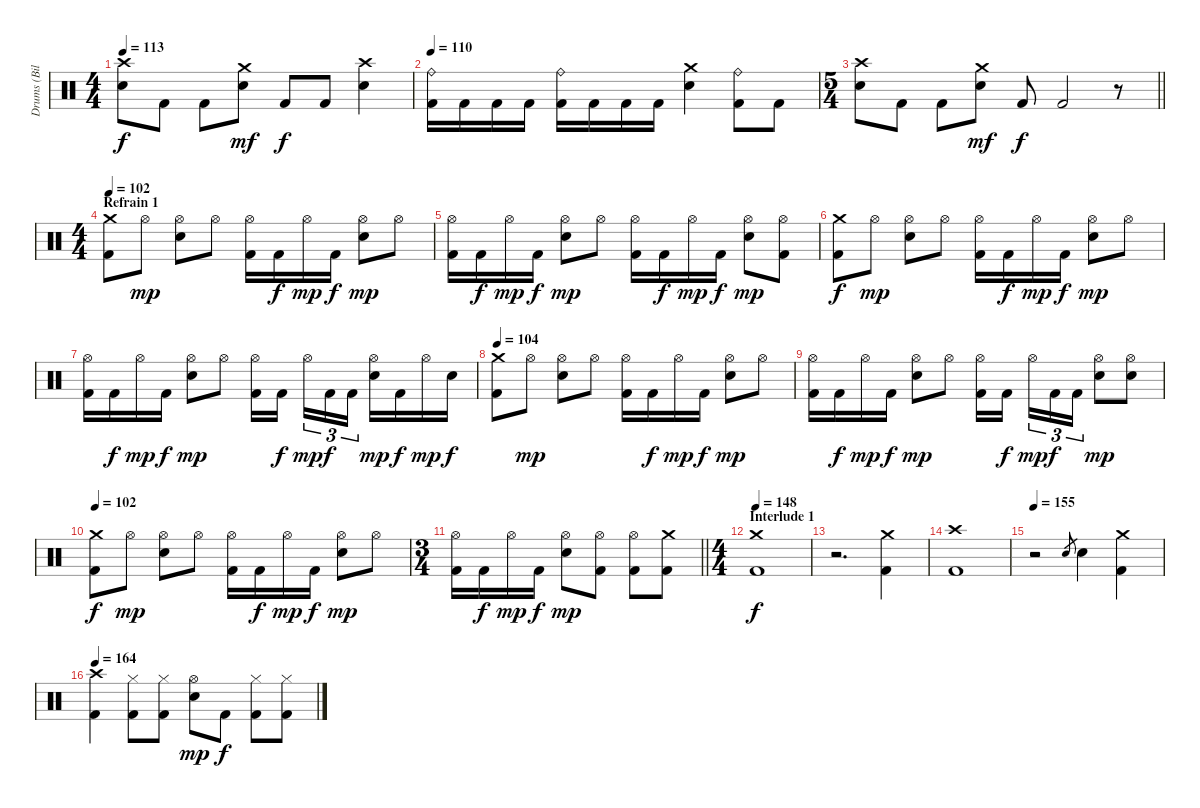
\track ("Drums (Bill Andrews)" "Drums (Bil") {instrument percussion}
\staff
\articulation defaults
\ts (4 4)
\tempo 113
\clef neutral
\ks c
("Crash high (hit)" "Electric Snare (hit)").8{dy f} "Kick (hit) 2".8 "Kick (hit) 2".8 ("Crash medium (hit)" "Electric Snare (hit)").8{dy mf} "Kick (hit) 2".8{dy f} "Kick (hit) 2".8 ("Crash high (hit)" "Electric Snare (hit)").4 |
\tempo 110
("Ride (bell)" "Kick (hit) 2").16 "Kick (hit) 2".16 "Kick (hit) 2".16 "Kick (hit) 2".16 ("Ride (bell)" "Kick (hit) 2").16 "Kick (hit) 2".16 "Kick (hit) 2".16 "Kick (hit) 2".16 ("Crash medium (hit)" "Electric Snare (hit)").4 ("Ride (bell)" "Kick (hit) 2").8 "Kick (hit) 2".8 |
\ts (5 4)
\barLineRight lightlight
("Crash high (hit)" "Electric Snare (hit)").8 "Kick (hit) 2".8 "Kick (hit) 2".8 ("Crash medium (hit)" "Electric Snare (hit)").8{dy mf} "Kick (hit) 2".8{dy f} "Kick (hit) 2".2 r.8 |
\ts (4 4)
\section ("" "Refrain 1")
\tempo 102
("Crash medium (hit)" "Kick (hit) 2").8 "Hi-Hat (open)".8{dy mp} ("Hi-Hat (open)" "Electric Snare (hit)").8 "Hi-Hat (open)".8 ("Hi-Hat (open)" "Kick (hit) 2").16 "Kick (hit) 2".16{dy f} "Hi-Hat (open)".16{dy mp} "Kick (hit) 2".16{dy f} ("Hi-Hat (open)" "Electric Snare (hit)").8{dy mp} "Hi-Hat (open)".8 |
("Hi-Hat (open)" "Kick (hit) 2").16 "Kick (hit) 2".16{dy f} "Hi-Hat (open)".16{dy mp} "Kick (hit) 2".16{dy f} ("Hi-Hat (open)" "Electric Snare (hit)").8{dy mp} "Hi-Hat (open)".8 ("Hi-Hat (open)" "Kick (hit) 2").16 "Kick (hit) 2".16{dy f} "Hi-Hat (open)".16{dy mp} "Kick (hit) 2".16{dy f} ("Hi-Hat (open)" "Electric Snare (hit)").8{dy mp} ("Hi-Hat (open)" "Kick (hit) 2").8 |
("Crash medium (hit)" "Kick (hit) 2").8{dy f} "Hi-Hat (open)".8{dy mp} ("Hi-Hat (open)" "Electric Snare (hit)").8 "Hi-Hat (open)".8 ("Hi-Hat (open)" "Kick (hit) 2").16 "Kick (hit) 2".16{dy f} "Hi-Hat (open)".16{dy mp} "Kick (hit) 2".16{dy f} ("Hi-Hat (open)" "Electric Snare (hit)").8{dy mp} "Hi-Hat (open)".8 |
("Hi-Hat (open)" "Kick (hit) 2").16 "Kick (hit) 2".16{dy f} "Hi-Hat (open)".16{dy mp} "Kick (hit) 2".16{dy f} ("Hi-Hat (open)" "Electric Snare (hit)").8{dy mp} "Hi-Hat (open)".8 ("Hi-Hat (open)" "Kick (hit) 2").16 "Kick (hit) 2".16{dy f beam splitsecondary} "Hi-Hat (open)".16{tu (3 2) dy mp} "Kick (hit) 2".16{tu (3 2) dy f} "Kick (hit) 2".16{tu (3 2)} ("Hi-Hat (open)" "Electric Snare (hit)").16{dy mp} "Kick (hit) 2".16{dy f} "Hi-Hat (open)".16{dy mp} "Electric Snare (hit)".16{dy f} |
\tempo 104
("Crash medium (hit)" "Kick (hit) 2").8 "Hi-Hat (open)".8{dy mp} ("Hi-Hat (open)" "Electric Snare (hit)").8 "Hi-Hat (open)".8 ("Hi-Hat (open)" "Kick (hit) 2").16 "Kick (hit) 2".16{dy f} "Hi-Hat (open)".16{dy mp} "Kick (hit) 2".16{dy f} ("Hi-Hat (open)" "Electric Snare (hit)").8{dy mp} "Hi-Hat (open)".8 |
("Hi-Hat (open)" "Kick (hit) 2").16 "Kick (hit) 2".16{dy f} "Hi-Hat (open)".16{dy mp} "Kick (hit) 2".16{dy f} ("Hi-Hat (open)" "Electric Snare (hit)").8{dy mp} "Hi-Hat (open)".8 ("Hi-Hat (open)" "Kick (hit) 2").16 "Kick (hit) 2".16{dy f beam splitsecondary} "Hi-Hat (open)".16{tu (3 2) dy mp} "Kick (hit) 2".16{tu (3 2) dy f} "Kick (hit) 2".16{tu (3 2)} ("Hi-Hat (open)" "Electric Snare (hit)").8{dy mp} ("Hi-Hat (open)" "Electric Snare (hit)").8 |
\tempo 102
("Crash medium (hit)" "Kick (hit) 2").8{dy f} "Hi-Hat (open)".8{dy mp} ("Hi-Hat (open)" "Electric Snare (hit)").8 "Hi-Hat (open)".8 ("Hi-Hat (open)" "Kick (hit) 2").16 "Kick (hit) 2".16{dy f} "Hi-Hat (open)".16{dy mp} "Kick (hit) 2".16{dy f} ("Hi-Hat (open)" "Electric Snare (hit)").8{dy mp} "Hi-Hat (open)".8 |
\ts (3 4)
\barLineRight lightlight
("Hi-Hat (open)" "Kick (hit) 2").16 "Kick (hit) 2".16{dy f} "Hi-Hat (open)".16{dy mp} "Kick (hit) 2".16{dy f} ("Hi-Hat (open)" "Electric Snare (hit)").8{dy mp} ("Hi-Hat (open)" "Kick (hit) 2").8 ("Hi-Hat (open)" "Kick (hit) 2").8 ("Crash medium (hit)" "Kick (hit) 2").8 |
\ts (4 4)
\section ("" "Interlude 1")
\tempo 148
("Crash medium (hit)" "Kick (hit) 2").1{dy f} |
r.2{d} ("Crash medium (hit)" "Kick (hit) 2").4 |
("Crash high (hit)" "Kick (hit) 2").1 |
\tempo 155
r.2 "Electric Snare (hit)".8{gr} "Electric Snare (hit)".4 ("Crash medium (hit)" "Kick (hit) 2").4 |
\tempo 164
("Crash high (hit)" "Kick (hit) 2").4 ("Hi-Hat (closed)" "Kick (hit) 2").8 ("Hi-Hat (closed)" "Kick (hit) 2").8 ("Hi-Hat (open)" "Electric Snare (hit)").8{dy mp} "Kick (hit) 2".8{dy f} ("Hi-Hat (closed)" "Kick (hit) 2").8 ("Hi-Hat (closed)" "Kick (hit) 2").8
